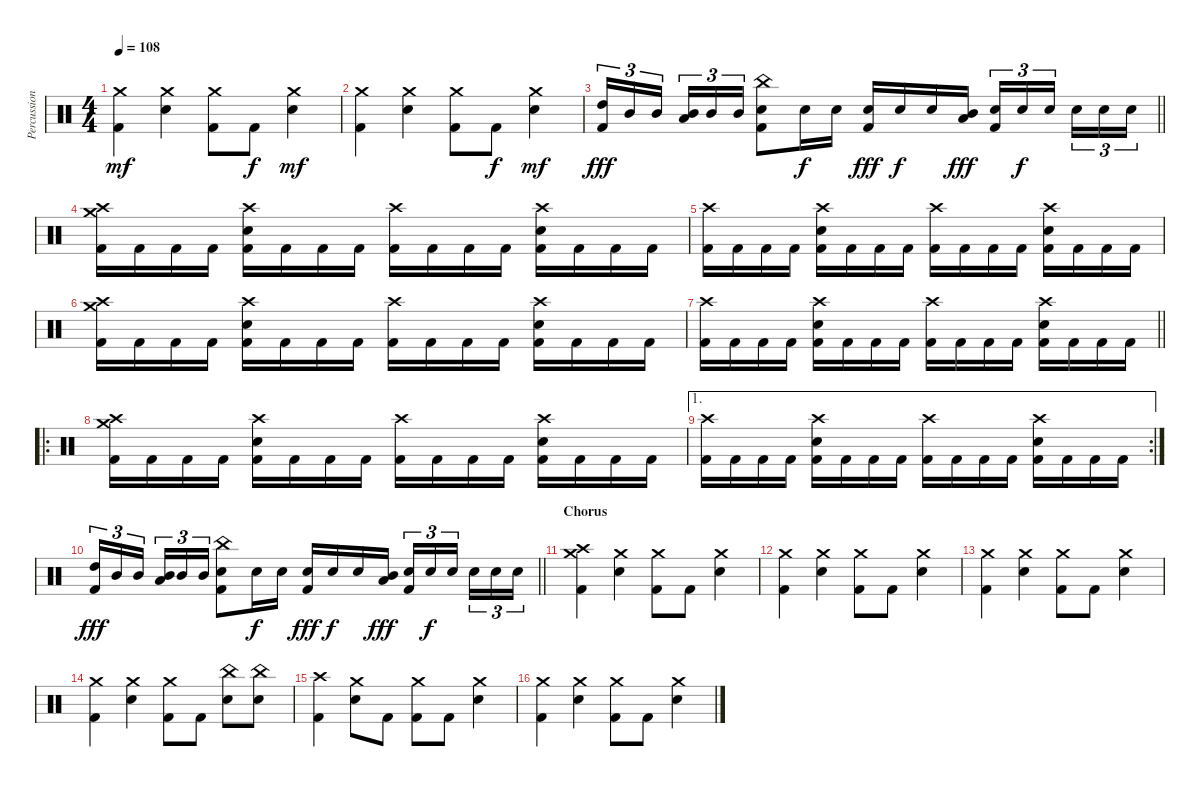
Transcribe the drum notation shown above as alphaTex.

\track ("Percussions" "Percussion") {instrument percussion}
\staff {score}
\articulation defaults
\ts (4 4)
\tempo 108
\clef neutral
\ks c
("Crash medium (hit)" "Kick (hit) 2").4{dy mf} ("Crash medium (hit)" "Electric Snare (hit)").4 ("Crash medium (hit)" "Kick (hit) 2").8 "Kick (hit) 2".8{dy f} ("Crash medium (hit)" "Electric Snare (hit)").4{dy mf} |
("Crash medium (hit)" "Kick (hit) 2").4 ("Crash medium (hit)" "Electric Snare (hit)").4 ("Crash medium (hit)" "Kick (hit) 2").8 "Kick (hit) 2".8{dy f} ("Crash medium (hit)" "Electric Snare (hit)").4{dy mf} |
\barLineRight lightlight
("High Tom (hit)" "Kick (hit) 2").16{tu (3 2) dy fff} "Mid Tom (hit)".16{tu (3 2)} "Mid Tom (hit)".16{tu (3 2) beam splitsecondary} ("Low Tom (hit)" "Mid Tom (hit)").16{tu (3 2)} "Mid Tom (hit)".16{tu (3 2)} "Mid Tom (hit)".16{tu (3 2)} ("China (hit)" "Electric Snare (hit)" "Kick (hit) 2").8 "Electric Snare (hit)".16{dy f} "Electric Snare (hit)".16 ("Electric Snare (hit)" "Kick (hit) 2").16{dy fff} "Electric Snare (hit)".16{dy f} "Electric Snare (hit)".16 ("Mid Tom (hit)" "Low Tom (hit)").16{dy fff} ("Electric Snare (hit)" "Kick (hit) 2").16{tu (3 2)} "Electric Snare (hit)".16{tu (3 2) dy f} "Electric Snare (hit)".16{tu (3 2) beam splitsecondary} "Electric Snare (hit)".16{tu (3 2)} "Electric Snare (hit)".16{tu (3 2)} "Electric Snare (hit)".16{tu (3 2)} |
\section ("" "")
("Crash high (hit)" "Crash medium (hit)" "Kick (hit) 2").16 "Kick (hit) 2".16 "Kick (hit) 2".16 "Kick (hit) 2".16 ("Crash high (hit)" "Electric Snare (hit)" "Kick (hit) 2").16 "Kick (hit) 2".16 "Kick (hit) 2".16 "Kick (hit) 2".16 ("Crash high (hit)" "Kick (hit) 2").16 "Kick (hit) 2".16 "Kick (hit) 2".16 "Kick (hit) 2".16 ("Crash high (hit)" "Electric Snare (hit)" "Kick (hit) 2").16 "Kick (hit) 2".16 "Kick (hit) 2".16 "Kick (hit) 2".16 |
("Crash high (hit)" "Kick (hit) 2").16 "Kick (hit) 2".16 "Kick (hit) 2".16 "Kick (hit) 2".16 ("Crash high (hit)" "Electric Snare (hit)" "Kick (hit) 2").16 "Kick (hit) 2".16 "Kick (hit) 2".16 "Kick (hit) 2".16 ("Crash high (hit)" "Kick (hit) 2").16 "Kick (hit) 2".16 "Kick (hit) 2".16 "Kick (hit) 2".16 ("Crash high (hit)" "Electric Snare (hit)" "Kick (hit) 2").16 "Kick (hit) 2".16 "Kick (hit) 2".16 "Kick (hit) 2".16 |
("Crash high (hit)" "Crash medium (hit)" "Kick (hit) 2").16 "Kick (hit) 2".16 "Kick (hit) 2".16 "Kick (hit) 2".16 ("Crash high (hit)" "Electric Snare (hit)" "Kick (hit) 2").16 "Kick (hit) 2".16 "Kick (hit) 2".16 "Kick (hit) 2".16 ("Crash high (hit)" "Kick (hit) 2").16 "Kick (hit) 2".16 "Kick (hit) 2".16 "Kick (hit) 2".16 ("Crash high (hit)" "Electric Snare (hit)" "Kick (hit) 2").16 "Kick (hit) 2".16 "Kick (hit) 2".16 "Kick (hit) 2".16 |
\barLineRight lightlight
("Crash high (hit)" "Kick (hit) 2").16 "Kick (hit) 2".16 "Kick (hit) 2".16 "Kick (hit) 2".16 ("Crash high (hit)" "Electric Snare (hit)" "Kick (hit) 2").16 "Kick (hit) 2".16 "Kick (hit) 2".16 "Kick (hit) 2".16 ("Crash high (hit)" "Kick (hit) 2").16 "Kick (hit) 2".16 "Kick (hit) 2".16 "Kick (hit) 2".16 ("Crash high (hit)" "Electric Snare (hit)" "Kick (hit) 2").16 "Kick (hit) 2".16 "Kick (hit) 2".16 "Kick (hit) 2".16 |
\ro
("Crash high (hit)" "Crash medium (hit)" "Kick (hit) 2").16 "Kick (hit) 2".16 "Kick (hit) 2".16 "Kick (hit) 2".16 ("Crash high (hit)" "Electric Snare (hit)" "Kick (hit) 2").16 "Kick (hit) 2".16 "Kick (hit) 2".16 "Kick (hit) 2".16 ("Crash high (hit)" "Kick (hit) 2").16 "Kick (hit) 2".16 "Kick (hit) 2".16 "Kick (hit) 2".16 ("Crash high (hit)" "Electric Snare (hit)" "Kick (hit) 2").16 "Kick (hit) 2".16 "Kick (hit) 2".16 "Kick (hit) 2".16 |
\ae 1
\rc 2
("Crash high (hit)" "Kick (hit) 2").16 "Kick (hit) 2".16 "Kick (hit) 2".16 "Kick (hit) 2".16 ("Crash high (hit)" "Electric Snare (hit)" "Kick (hit) 2").16 "Kick (hit) 2".16 "Kick (hit) 2".16 "Kick (hit) 2".16 ("Crash high (hit)" "Kick (hit) 2").16 "Kick (hit) 2".16 "Kick (hit) 2".16 "Kick (hit) 2".16 ("Crash high (hit)" "Electric Snare (hit)" "Kick (hit) 2").16 "Kick (hit) 2".16 "Kick (hit) 2".16 "Kick (hit) 2".16 |
\barLineRight lightlight
("High Tom (hit)" "Kick (hit) 2").16{tu (3 2) dy fff} "Mid Tom (hit)".16{tu (3 2)} "Mid Tom (hit)".16{tu (3 2) beam splitsecondary} ("Low Tom (hit)" "Mid Tom (hit)").16{tu (3 2)} "Mid Tom (hit)".16{tu (3 2)} "Mid Tom (hit)".16{tu (3 2)} ("China (hit)" "Electric Snare (hit)" "Kick (hit) 2").8 "Electric Snare (hit)".16{dy f} "Electric Snare (hit)".16 ("Electric Snare (hit)" "Kick (hit) 2").16{dy fff} "Electric Snare (hit)".16{dy f} "Electric Snare (hit)".16 ("Mid Tom (hit)" "Low Tom (hit)").16{dy fff} ("Electric Snare (hit)" "Kick (hit) 2").16{tu (3 2)} "Electric Snare (hit)".16{tu (3 2) dy f} "Electric Snare (hit)".16{tu (3 2) beam splitsecondary} "Electric Snare (hit)".16{tu (3 2)} "Electric Snare (hit)".16{tu (3 2)} "Electric Snare (hit)".16{tu (3 2)} |
\section ("" "Chorus")
("Crash high (hit)" "Crash medium (hit)" "Kick (hit) 2").4 ("Crash medium (hit)" "Electric Snare (hit)").4 ("Crash medium (hit)" "Kick (hit) 2").8 "Kick (hit) 2".8 ("Crash medium (hit)" "Electric Snare (hit)").4 |
("Crash medium (hit)" "Kick (hit) 2").4 ("Crash medium (hit)" "Electric Snare (hit)").4 ("Crash medium (hit)" "Kick (hit) 2").8 "Kick (hit) 2".8 ("Crash medium (hit)" "Electric Snare (hit)").4 |
("Crash medium (hit)" "Kick (hit) 2").4 ("Crash medium (hit)" "Electric Snare (hit)").4 ("Crash medium (hit)" "Kick (hit) 2").8 "Kick (hit) 2".8 ("Crash medium (hit)" "Electric Snare (hit)").4 |
("Crash medium (hit)" "Kick (hit) 2").4 ("Crash medium (hit)" "Electric Snare (hit)").4 ("Crash medium (hit)" "Kick (hit) 2").8 "Kick (hit) 2".8 ("China (hit)" "Electric Snare (hit)").8 ("China (hit)" "Electric Snare (hit)").8 |
("Crash high (hit)" "Kick (hit) 2").4 ("Crash medium (hit)" "Electric Snare (hit)").8 "Kick (hit) 2".8 ("Crash medium (hit)" "Kick (hit) 2").8 "Kick (hit) 2".8 ("Crash medium (hit)" "Electric Snare (hit)").4 |
("Crash medium (hit)" "Kick (hit) 2").4 ("Crash medium (hit)" "Electric Snare (hit)").4 ("Crash medium (hit)" "Kick (hit) 2").8 "Kick (hit) 2".8 ("Crash medium (hit)" "Electric Snare (hit)").4
